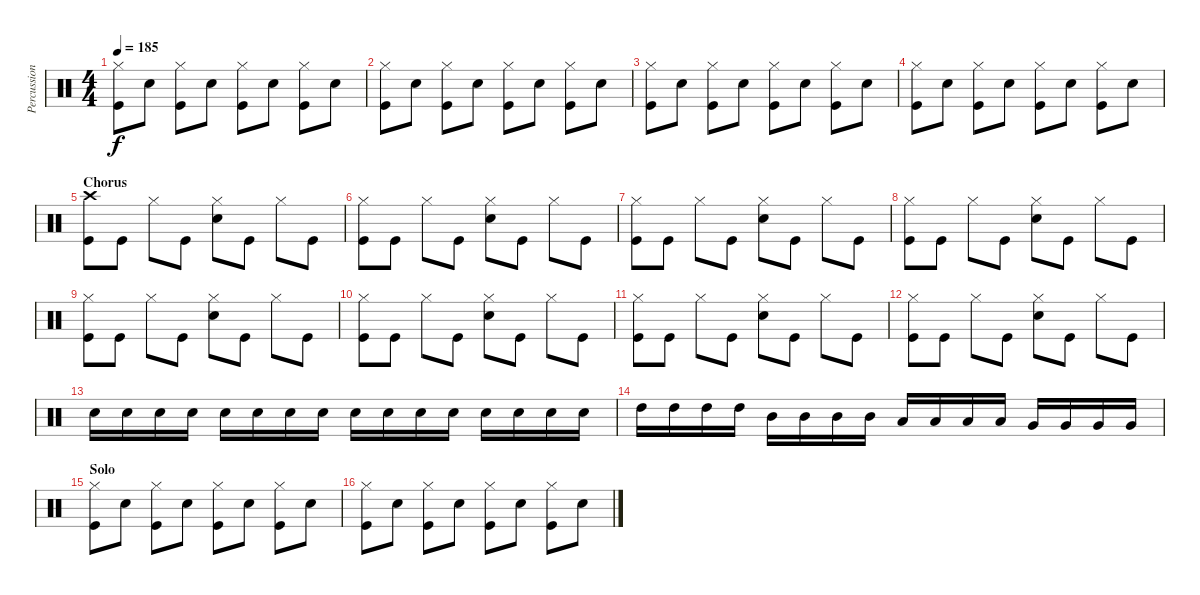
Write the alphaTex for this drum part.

\track ("Percussion" "Percussion") {instrument percussion}
\staff {score}
\articulation defaults
\ts (4 4)
\tempo 185
\clef neutral
\ks c
("Hi-Hat (closed)" "Kick (hit)").8{dy f} "Snare (hit) 2".8 ("Hi-Hat (closed)" "Kick (hit)").8 "Snare (hit) 2".8 ("Hi-Hat (closed)" "Kick (hit)").8 "Snare (hit) 2".8 ("Hi-Hat (closed)" "Kick (hit)").8 "Snare (hit) 2".8 |
("Hi-Hat (closed)" "Kick (hit)").8 "Snare (hit) 2".8 ("Hi-Hat (closed)" "Kick (hit)").8 "Snare (hit) 2".8 ("Hi-Hat (closed)" "Kick (hit)").8 "Snare (hit) 2".8 ("Hi-Hat (closed)" "Kick (hit)").8 "Snare (hit) 2".8 |
("Hi-Hat (closed)" "Kick (hit)").8 "Snare (hit) 2".8 ("Hi-Hat (closed)" "Kick (hit)").8 "Snare (hit) 2".8 ("Hi-Hat (closed)" "Kick (hit)").8 "Snare (hit) 2".8 ("Hi-Hat (closed)" "Kick (hit)").8 "Snare (hit) 2".8 |
("Hi-Hat (closed)" "Kick (hit)").8 "Snare (hit) 2".8 ("Hi-Hat (closed)" "Kick (hit)").8 "Snare (hit) 2".8 ("Hi-Hat (closed)" "Kick (hit)").8 "Snare (hit) 2".8 ("Hi-Hat (closed)" "Kick (hit)").8 "Snare (hit) 2".8 |
\section ("" "Chorus")
("Crash high (hit)" "Kick (hit)").8 "Kick (hit)".8 "Hi-Hat (closed)".8 "Kick (hit)".8 ("Hi-Hat (closed)" "Snare (hit) 2").8 "Kick (hit)".8 "Hi-Hat (closed)".8 "Kick (hit)".8 |
("Hi-Hat (closed)" "Kick (hit)").8 "Kick (hit)".8 "Hi-Hat (closed)".8 "Kick (hit)".8 ("Hi-Hat (closed)" "Snare (hit) 2").8 "Kick (hit)".8 "Hi-Hat (closed)".8 "Kick (hit)".8 |
("Hi-Hat (closed)" "Kick (hit)").8 "Kick (hit)".8 "Hi-Hat (closed)".8 "Kick (hit)".8 ("Hi-Hat (closed)" "Snare (hit) 2").8 "Kick (hit)".8 "Hi-Hat (closed)".8 "Kick (hit)".8 |
("Hi-Hat (closed)" "Kick (hit)").8 "Kick (hit)".8 "Hi-Hat (closed)".8 "Kick (hit)".8 ("Hi-Hat (closed)" "Snare (hit) 2").8 "Kick (hit)".8 "Hi-Hat (closed)".8 "Kick (hit)".8 |
("Hi-Hat (closed)" "Kick (hit)").8 "Kick (hit)".8 "Hi-Hat (closed)".8 "Kick (hit)".8 ("Hi-Hat (closed)" "Snare (hit) 2").8 "Kick (hit)".8 "Hi-Hat (closed)".8 "Kick (hit)".8 |
("Hi-Hat (closed)" "Kick (hit)").8 "Kick (hit)".8 "Hi-Hat (closed)".8 "Kick (hit)".8 ("Hi-Hat (closed)" "Snare (hit) 2").8 "Kick (hit)".8 "Hi-Hat (closed)".8 "Kick (hit)".8 |
("Hi-Hat (closed)" "Kick (hit)").8 "Kick (hit)".8 "Hi-Hat (closed)".8 "Kick (hit)".8 ("Hi-Hat (closed)" "Snare (hit) 2").8 "Kick (hit)".8 "Hi-Hat (closed)".8 "Kick (hit)".8 |
("Hi-Hat (closed)" "Kick (hit)").8 "Kick (hit)".8 "Hi-Hat (closed)".8 "Kick (hit)".8 ("Hi-Hat (closed)" "Snare (hit) 2").8 "Kick (hit)".8 "Hi-Hat (closed)".8 "Kick (hit)".8 |
"Snare (hit) 2".16 "Snare (hit) 2".16 "Snare (hit) 2".16 "Snare (hit) 2".16 "Snare (hit) 2".16 "Snare (hit) 2".16 "Snare (hit) 2".16 "Snare (hit) 2".16 "Snare (hit) 2".16 "Snare (hit) 2".16 "Snare (hit) 2".16 "Snare (hit) 2".16 "Snare (hit) 2".16 "Snare (hit) 2".16 "Snare (hit) 2".16 "Snare (hit) 2".16 |
"High Tom (hit)".16 "High Tom (hit)".16 "High Tom (hit)".16 "High Tom (hit)".16 "Mid Tom (hit)".16 "Mid Tom (hit)".16 "Mid Tom (hit)".16 "Mid Tom (hit)".16 "Low Tom (hit)".16 "Low Tom (hit)".16 "Low Tom (hit)".16 "Low Tom (hit)".16 "Very Low Tom (hit)".16 "Very Low Tom (hit)".16 "Very Low Tom (hit)".16 "Very Low Tom (hit)".16 |
\section ("" "Solo")
("Hi-Hat (closed)" "Kick (hit)").8 "Snare (hit) 2".8 ("Hi-Hat (closed)" "Kick (hit)").8 "Snare (hit) 2".8 ("Hi-Hat (closed)" "Kick (hit)").8 "Snare (hit) 2".8 ("Hi-Hat (closed)" "Kick (hit)").8 "Snare (hit) 2".8 |
("Hi-Hat (closed)" "Kick (hit)").8 "Snare (hit) 2".8 ("Hi-Hat (closed)" "Kick (hit)").8 "Snare (hit) 2".8 ("Hi-Hat (closed)" "Kick (hit)").8 "Snare (hit) 2".8 ("Hi-Hat (closed)" "Kick (hit)").8 "Snare (hit) 2".8
